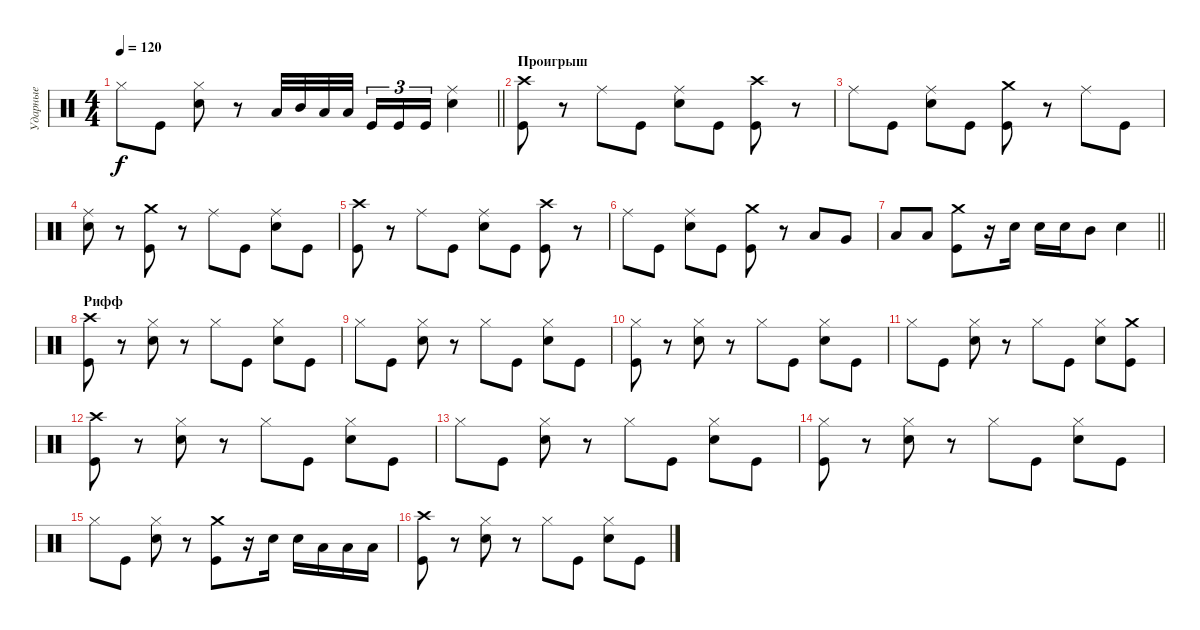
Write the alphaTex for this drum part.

\track ("Ударные" "Ударные") {instrument percussion}
\staff {score}
\articulation defaults
\ts (4 4)
\tempo 120
\clef neutral
\barLineRight lightlight
\ks c "Hi-Hat (closed)".8{dy f} "Kick (hit)".8
("Hi-Hat (closed)" "Snare (hit) 2").8 r.8 "Low Tom (hit)".32 "Mid Tom (hit)".32 "Low Tom (hit)".32 "Low Tom (hit)".32{beam splitsecondary} "Kick (hit)".16{tu (3 2)} "Kick (hit)".16{tu (3 2)} "Kick (hit)".16{tu (3 2)} ("Ride (middle)" "Snare (hit) 2").4 |
\section ("" "Проигрыш")
("Crash high (hit)" "Kick (hit)").8 r.8 "Ride (middle)".8 "Kick (hit)".8 ("Ride (middle)" "Snare (hit) 2").8 "Kick (hit)".8 ("Crash high (hit)" "Kick (hit)").8 r.8 |
"Ride (middle)".8 "Kick (hit)".8 ("Ride (middle)" "Snare (hit) 2").8 "Kick (hit)".8 ("Crash medium (hit)" "Kick (hit)").8 r.8 "Ride (middle)".8 "Kick (hit)".8 |
("Ride (middle)" "Snare (hit) 2").8 r.8 ("Crash medium (hit)" "Kick (hit)").8 r.8 "Ride (middle)".8 "Kick (hit)".8 ("Ride (middle)" "Snare (hit) 2").8 "Kick (hit)".8 |
("Crash high (hit)" "Kick (hit)").8 r.8 "Ride (middle)".8 "Kick (hit)".8 ("Ride (middle)" "Snare (hit) 2").8 "Kick (hit)".8 ("Crash high (hit)" "Kick (hit)").8 r.8 |
"Ride (middle)".8 "Kick (hit)".8 ("Ride (middle)" "Snare (hit) 2").8 "Kick (hit)".8 ("Crash medium (hit)" "Kick (hit)").8 r.8 "Low Tom (hit)".8 "Very Low Tom (hit)".8 |
\barLineRight lightlight "Low Tom (hit)".8 "Low Tom (hit)".8
("Crash medium (hit)" "Kick (hit)").8 r.16 "Snare (hit) 2".16 "Snare (hit) 2".16 "Snare (hit) 2".16 "Mid Tom (hit)".8 "Snare (hit) 2".4 |
\section ("" "Рифф")
("Crash high (hit)" "Kick (hit)").8 r.8 ("Hi-Hat (closed)" "Snare (hit) 2").8 r.8 "Hi-Hat (closed)".8 "Kick (hit)".8 ("Hi-Hat (closed)" "Snare (hit) 2").8 "Kick (hit)".8 |
"Hi-Hat (closed)".8 "Kick (hit)".8 ("Hi-Hat (closed)" "Snare (hit) 2").8 r.8 "Hi-Hat (closed)".8 "Kick (hit)".8 ("Hi-Hat (closed)" "Snare (hit) 2").8 "Kick (hit)".8 |
("Hi-Hat (closed)" "Kick (hit)").8 r.8 ("Hi-Hat (closed)" "Snare (hit) 2").8 r.8 "Hi-Hat (closed)".8 "Kick (hit)".8 ("Hi-Hat (closed)" "Snare (hit) 2").8 "Kick (hit)".8 |
"Hi-Hat (closed)".8 "Kick (hit)".8 ("Hi-Hat (closed)" "Snare (hit) 2").8 r.8 "Hi-Hat (closed)".8 "Kick (hit)".8 ("Hi-Hat (closed)" "Snare (hit) 2").8 ("Crash medium (hit)" "Kick (hit)").8 |
("Crash high (hit)" "Kick (hit)").8 r.8 ("Hi-Hat (closed)" "Snare (hit) 2").8 r.8 "Hi-Hat (closed)".8 "Kick (hit)".8 ("Hi-Hat (closed)" "Snare (hit) 2").8 "Kick (hit)".8 |
"Hi-Hat (closed)".8 "Kick (hit)".8 ("Hi-Hat (closed)" "Snare (hit) 2").8 r.8 "Hi-Hat (closed)".8 "Kick (hit)".8 ("Hi-Hat (closed)" "Snare (hit) 2").8 "Kick (hit)".8 |
("Hi-Hat (closed)" "Kick (hit)").8 r.8 ("Hi-Hat (closed)" "Snare (hit) 2").8 r.8 "Hi-Hat (closed)".8 "Kick (hit)".8 ("Hi-Hat (closed)" "Snare (hit) 2").8 "Kick (hit)".8 |
"Hi-Hat (closed)".8 "Kick (hit)".8 ("Hi-Hat (closed)" "Snare (hit) 2").8 r.8 ("Crash medium (hit)" "Kick (hit)").8 r.16 "Snare (hit) 2".16 "Snare (hit) 2".16 "Low Tom (hit)".16 "Low Tom (hit)".16 "Low Tom (hit)".16 |
("Crash high (hit)" "Kick (hit)").8 r.8 ("Hi-Hat (closed)" "Snare (hit) 2").8 r.8 "Hi-Hat (closed)".8 "Kick (hit)".8 ("Hi-Hat (closed)" "Snare (hit) 2").8 "Kick (hit)".8
